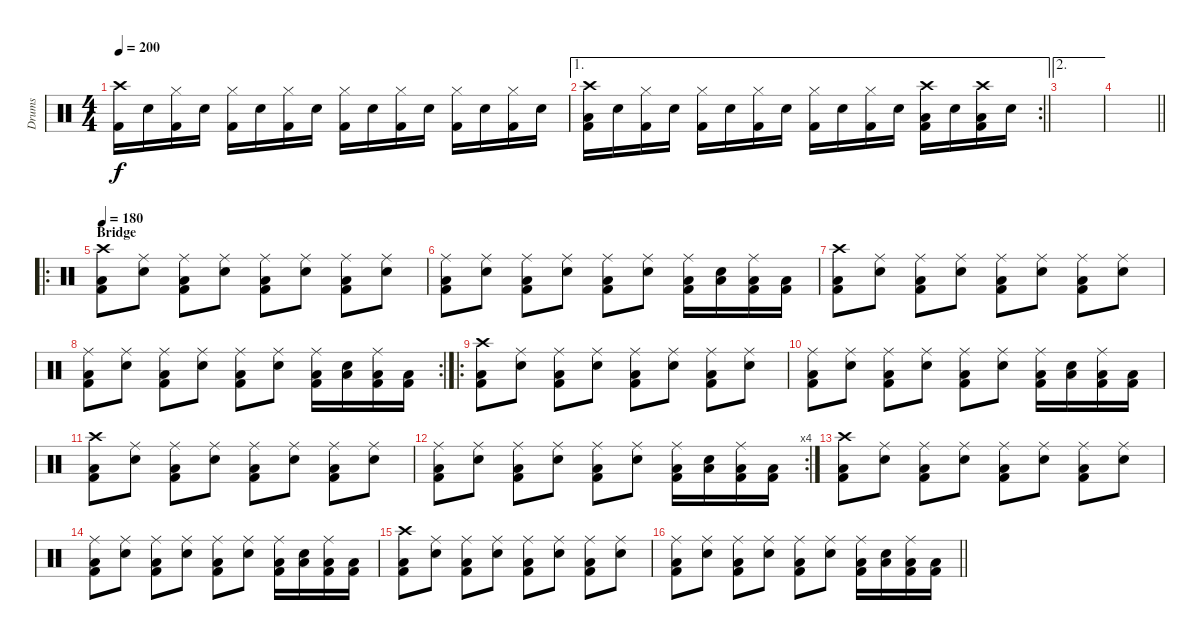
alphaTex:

\track ("Drums" "Drums") {instrument percussion}
\staff {score}
\articulation defaults
\ts (4 4)
\tempo 200
\clef neutral
\ks c
("Crash high (hit)" "Kick (hit) 2").16{dy f} "Snare (hit) 2".16 ("Hi-Hat (closed)" "Kick (hit) 2").16 "Snare (hit) 2".16 ("Hi-Hat (closed)" "Kick (hit) 2").16 "Snare (hit) 2".16 ("Hi-Hat (closed)" "Kick (hit) 2").16 "Snare (hit) 2".16 ("Hi-Hat (closed)" "Kick (hit) 2").16 "Snare (hit) 2".16 ("Hi-Hat (closed)" "Kick (hit) 2").16 "Snare (hit) 2".16 ("Hi-Hat (closed)" "Kick (hit) 2").16 "Snare (hit) 2".16 ("Hi-Hat (closed)" "Kick (hit) 2").16 "Snare (hit) 2".16 |
\ae 1
\rc 2
\barLineRight lightlight
("Crash high (hit)" "Low Floor Tom (hit)" "Kick (hit) 2").16 "Snare (hit) 2".16 ("Hi-Hat (closed)" "Kick (hit) 2").16 "Snare (hit) 2".16 ("Hi-Hat (closed)" "Kick (hit) 2").16 "Snare (hit) 2".16 ("Hi-Hat (closed)" "Kick (hit) 2").16 "Snare (hit) 2".16 ("Hi-Hat (closed)" "Kick (hit) 2").16 "Snare (hit) 2".16 ("Hi-Hat (closed)" "Kick (hit) 2").16 "Snare (hit) 2".16 ("Crash high (hit)" "Low Floor Tom (hit)" "Kick (hit) 2").16 "Snare (hit) 2".16 ("Crash high (hit)" "Low Floor Tom (hit)" "Kick (hit) 2").16 "Snare (hit) 2".16 |
\ae 2
|
\barLineRight lightlight
|
\ro
\section ("" "Bridge")
\tempo 180
("Crash high (hit)" "Low Floor Tom (hit)" "Kick (hit) 2").8 ("Ride (middle)" "Snare (hit) 2").8 ("Ride (middle)" "Low Floor Tom (hit)" "Kick (hit) 2").8 ("Ride (middle)" "Snare (hit) 2").8 ("Ride (middle)" "Low Floor Tom (hit)" "Kick (hit) 2").8 ("Ride (middle)" "Snare (hit) 2").8 ("Ride (middle)" "Low Floor Tom (hit)" "Kick (hit) 2").8 ("Ride (middle)" "Snare (hit) 2").8 |
("Ride (middle)" "Low Floor Tom (hit)" "Kick (hit) 2").8 ("Ride (middle)" "Snare (hit) 2").8 ("Ride (middle)" "Low Floor Tom (hit)" "Kick (hit) 2").8 ("Ride (middle)" "Snare (hit) 2").8 ("Ride (middle)" "Low Floor Tom (hit)" "Kick (hit) 2").8 ("Ride (middle)" "Snare (hit) 2").8 ("Ride (middle)" "Low Floor Tom (hit)" "Kick (hit) 2").16 ("Low Floor Tom (hit)" "Snare (hit) 2").16 ("Ride (middle)" "Low Floor Tom (hit)" "Kick (hit) 2").16 ("Low Floor Tom (hit)" "Kick (hit) 2").16 |
("Crash high (hit)" "Low Floor Tom (hit)" "Kick (hit) 2").8 ("Ride (middle)" "Snare (hit) 2").8 ("Ride (middle)" "Low Floor Tom (hit)" "Kick (hit) 2").8 ("Ride (middle)" "Snare (hit) 2").8 ("Ride (middle)" "Low Floor Tom (hit)" "Kick (hit) 2").8 ("Ride (middle)" "Snare (hit) 2").8 ("Ride (middle)" "Low Floor Tom (hit)" "Kick (hit) 2").8 ("Ride (middle)" "Snare (hit) 2").8 |
\rc 2
("Ride (middle)" "Low Floor Tom (hit)" "Kick (hit) 2").8 ("Ride (middle)" "Snare (hit) 2").8 ("Ride (middle)" "Low Floor Tom (hit)" "Kick (hit) 2").8 ("Ride (middle)" "Snare (hit) 2").8 ("Ride (middle)" "Low Floor Tom (hit)" "Kick (hit) 2").8 ("Ride (middle)" "Snare (hit) 2").8 ("Ride (middle)" "Low Floor Tom (hit)" "Kick (hit) 2").16 ("Low Floor Tom (hit)" "Snare (hit) 2").16 ("Ride (middle)" "Low Floor Tom (hit)" "Kick (hit) 2").16 ("Low Floor Tom (hit)" "Kick (hit) 2").16 |
\ro
("Crash high (hit)" "Low Floor Tom (hit)" "Kick (hit) 2").8 ("Ride (middle)" "Snare (hit) 2").8 ("Ride (middle)" "Low Floor Tom (hit)" "Kick (hit) 2").8 ("Ride (middle)" "Snare (hit) 2").8 ("Ride (middle)" "Low Floor Tom (hit)" "Kick (hit) 2").8 ("Ride (middle)" "Snare (hit) 2").8 ("Ride (middle)" "Low Floor Tom (hit)" "Kick (hit) 2").8 ("Ride (middle)" "Snare (hit) 2").8 |
("Ride (middle)" "Low Floor Tom (hit)" "Kick (hit) 2").8 ("Ride (middle)" "Snare (hit) 2").8 ("Ride (middle)" "Low Floor Tom (hit)" "Kick (hit) 2").8 ("Ride (middle)" "Snare (hit) 2").8 ("Ride (middle)" "Low Floor Tom (hit)" "Kick (hit) 2").8 ("Ride (middle)" "Snare (hit) 2").8 ("Ride (middle)" "Low Floor Tom (hit)" "Kick (hit) 2").16 ("Low Floor Tom (hit)" "Snare (hit) 2").16 ("Ride (middle)" "Low Floor Tom (hit)" "Kick (hit) 2").16 ("Low Floor Tom (hit)" "Kick (hit) 2").16 |
("Crash high (hit)" "Low Floor Tom (hit)" "Kick (hit) 2").8 ("Ride (middle)" "Snare (hit) 2").8 ("Ride (middle)" "Low Floor Tom (hit)" "Kick (hit) 2").8 ("Ride (middle)" "Snare (hit) 2").8 ("Ride (middle)" "Low Floor Tom (hit)" "Kick (hit) 2").8 ("Ride (middle)" "Snare (hit) 2").8 ("Ride (middle)" "Low Floor Tom (hit)" "Kick (hit) 2").8 ("Ride (middle)" "Snare (hit) 2").8 |
\rc 4
("Ride (middle)" "Low Floor Tom (hit)" "Kick (hit) 2").8 ("Ride (middle)" "Snare (hit) 2").8 ("Ride (middle)" "Low Floor Tom (hit)" "Kick (hit) 2").8 ("Ride (middle)" "Snare (hit) 2").8 ("Ride (middle)" "Low Floor Tom (hit)" "Kick (hit) 2").8 ("Ride (middle)" "Snare (hit) 2").8 ("Ride (middle)" "Low Floor Tom (hit)" "Kick (hit) 2").16 ("Low Floor Tom (hit)" "Snare (hit) 2").16 ("Ride (middle)" "Low Floor Tom (hit)" "Kick (hit) 2").16 ("Low Floor Tom (hit)" "Kick (hit) 2").16 |
("Crash high (hit)" "Low Floor Tom (hit)" "Kick (hit) 2").8 ("Ride (middle)" "Snare (hit) 2").8 ("Ride (middle)" "Low Floor Tom (hit)" "Kick (hit) 2").8 ("Ride (middle)" "Snare (hit) 2").8 ("Ride (middle)" "Low Floor Tom (hit)" "Kick (hit) 2").8 ("Ride (middle)" "Snare (hit) 2").8 ("Ride (middle)" "Low Floor Tom (hit)" "Kick (hit) 2").8 ("Ride (middle)" "Snare (hit) 2").8 |
("Ride (middle)" "Low Floor Tom (hit)" "Kick (hit) 2").8 ("Ride (middle)" "Snare (hit) 2").8 ("Ride (middle)" "Low Floor Tom (hit)" "Kick (hit) 2").8 ("Ride (middle)" "Snare (hit) 2").8 ("Ride (middle)" "Low Floor Tom (hit)" "Kick (hit) 2").8 ("Ride (middle)" "Snare (hit) 2").8 ("Ride (middle)" "Low Floor Tom (hit)" "Kick (hit) 2").16 ("Low Floor Tom (hit)" "Snare (hit) 2").16 ("Ride (middle)" "Low Floor Tom (hit)" "Kick (hit) 2").16 ("Low Floor Tom (hit)" "Kick (hit) 2").16 |
("Crash high (hit)" "Low Floor Tom (hit)" "Kick (hit) 2").8 ("Ride (middle)" "Snare (hit) 2").8 ("Ride (middle)" "Low Floor Tom (hit)" "Kick (hit) 2").8 ("Ride (middle)" "Snare (hit) 2").8 ("Ride (middle)" "Low Floor Tom (hit)" "Kick (hit) 2").8 ("Ride (middle)" "Snare (hit) 2").8 ("Ride (middle)" "Low Floor Tom (hit)" "Kick (hit) 2").8 ("Ride (middle)" "Snare (hit) 2").8 |
\barLineRight lightlight
("Ride (middle)" "Low Floor Tom (hit)" "Kick (hit) 2").8 ("Ride (middle)" "Snare (hit) 2").8 ("Ride (middle)" "Low Floor Tom (hit)" "Kick (hit) 2").8 ("Ride (middle)" "Snare (hit) 2").8 ("Ride (middle)" "Low Floor Tom (hit)" "Kick (hit) 2").8 ("Ride (middle)" "Snare (hit) 2").8 ("Ride (middle)" "Low Floor Tom (hit)" "Kick (hit) 2").16 ("Low Floor Tom (hit)" "Snare (hit) 2").16 ("Ride (middle)" "Low Floor Tom (hit)" "Kick (hit) 2").16 ("Low Floor Tom (hit)" "Kick (hit) 2").16
